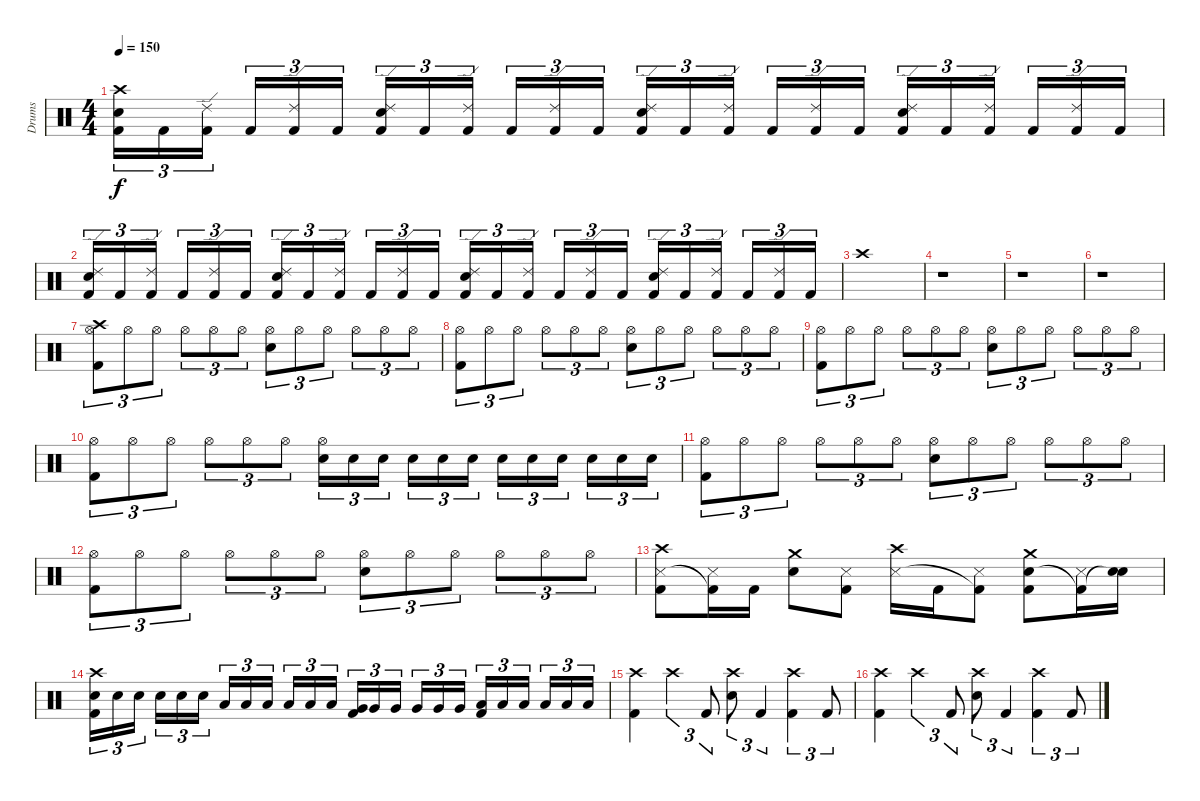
\track ("Drums" "Drums") {instrument percussion}
\staff {score}
\articulation defaults
\ts (4 4)
\tempo 150
\clef neutral
\ks c
("Crash high (hit)" "Electric Snare (hit)" "Kick (hit) 2").16{tu (3 2) dy f} "Kick (hit) 2".16{tu (3 2)} ("Ride (edge) 2" "Kick (hit) 2").16{tu (3 2)} "Kick (hit) 2".16{tu (3 2)} ("Ride (edge) 2" "Kick (hit) 2").16{tu (3 2)} "Kick (hit) 2".16{tu (3 2)} ("Ride (edge) 2" "Electric Snare (hit)" "Kick (hit) 2").16{tu (3 2)} "Kick (hit) 2".16{tu (3 2)} ("Ride (edge) 2" "Kick (hit) 2").16{tu (3 2)} "Kick (hit) 2".16{tu (3 2)} ("Ride (edge) 2" "Kick (hit) 2").16{tu (3 2)} "Kick (hit) 2".16{tu (3 2)} ("Ride (edge) 2" "Electric Snare (hit)" "Kick (hit) 2").16{tu (3 2)} "Kick (hit) 2".16{tu (3 2)} ("Ride (edge) 2" "Kick (hit) 2").16{tu (3 2)} "Kick (hit) 2".16{tu (3 2)} ("Ride (edge) 2" "Kick (hit) 2").16{tu (3 2)} "Kick (hit) 2".16{tu (3 2)} ("Ride (edge) 2" "Electric Snare (hit)" "Kick (hit) 2").16{tu (3 2)} "Kick (hit) 2".16{tu (3 2)} ("Ride (edge) 2" "Kick (hit) 2").16{tu (3 2)} "Kick (hit) 2".16{tu (3 2)} ("Ride (edge) 2" "Kick (hit) 2").16{tu (3 2)} "Kick (hit) 2".16{tu (3 2)} |
("Ride (edge) 2" "Electric Snare (hit)" "Kick (hit) 2").16{tu (3 2)} "Kick (hit) 2".16{tu (3 2)} ("Ride (edge) 2" "Kick (hit) 2").16{tu (3 2)} "Kick (hit) 2".16{tu (3 2)} ("Ride (edge) 2" "Kick (hit) 2").16{tu (3 2)} "Kick (hit) 2".16{tu (3 2)} ("Ride (edge) 2" "Electric Snare (hit)" "Kick (hit) 2").16{tu (3 2)} "Kick (hit) 2".16{tu (3 2)} ("Ride (edge) 2" "Kick (hit) 2").16{tu (3 2)} "Kick (hit) 2".16{tu (3 2)} ("Ride (edge) 2" "Kick (hit) 2").16{tu (3 2)} "Kick (hit) 2".16{tu (3 2)} ("Ride (edge) 2" "Electric Snare (hit)" "Kick (hit) 2").16{tu (3 2)} "Kick (hit) 2".16{tu (3 2)} ("Ride (edge) 2" "Kick (hit) 2").16{tu (3 2)} "Kick (hit) 2".16{tu (3 2)} ("Ride (edge) 2" "Kick (hit) 2").16{tu (3 2)} "Kick (hit) 2".16{tu (3 2)} ("Ride (edge) 2" "Electric Snare (hit)" "Kick (hit) 2").16{tu (3 2)} "Kick (hit) 2".16{tu (3 2)} ("Ride (edge) 2" "Kick (hit) 2").16{tu (3 2)} "Kick (hit) 2".16{tu (3 2)} ("Ride (edge) 2" "Kick (hit) 2").16{tu (3 2)} "Kick (hit) 2".16{tu (3 2)} |
"Crash high (hit)".1 |
r.1 |
r.1 |
r.1 |
("Crash high (hit)" "Hi-Hat (open)" "Kick (hit) 2").8{tu (3 2)} "Hi-Hat (open)".8{tu (3 2)} "Hi-Hat (open)".8{tu (3 2)} "Hi-Hat (open)".8{tu (3 2)} "Hi-Hat (open)".8{tu (3 2)} "Hi-Hat (open)".8{tu (3 2)} ("Hi-Hat (open)" "Electric Snare (hit)").8{tu (3 2)} "Hi-Hat (open)".8{tu (3 2)} "Hi-Hat (open)".8{tu (3 2)} "Hi-Hat (open)".8{tu (3 2)} "Hi-Hat (open)".8{tu (3 2)} "Hi-Hat (open)".8{tu (3 2)} |
("Hi-Hat (open)" "Kick (hit) 2").8{tu (3 2)} "Hi-Hat (open)".8{tu (3 2)} "Hi-Hat (open)".8{tu (3 2)} "Hi-Hat (open)".8{tu (3 2)} "Hi-Hat (open)".8{tu (3 2)} "Hi-Hat (open)".8{tu (3 2)} ("Hi-Hat (open)" "Electric Snare (hit)").8{tu (3 2)} "Hi-Hat (open)".8{tu (3 2)} "Hi-Hat (open)".8{tu (3 2)} "Hi-Hat (open)".8{tu (3 2)} "Hi-Hat (open)".8{tu (3 2)} "Hi-Hat (open)".8{tu (3 2)} |
("Hi-Hat (open)" "Kick (hit) 2").8{tu (3 2)} "Hi-Hat (open)".8{tu (3 2)} "Hi-Hat (open)".8{tu (3 2)} "Hi-Hat (open)".8{tu (3 2)} "Hi-Hat (open)".8{tu (3 2)} "Hi-Hat (open)".8{tu (3 2)} ("Hi-Hat (open)" "Electric Snare (hit)").8{tu (3 2)} "Hi-Hat (open)".8{tu (3 2)} "Hi-Hat (open)".8{tu (3 2)} "Hi-Hat (open)".8{tu (3 2)} "Hi-Hat (open)".8{tu (3 2)} "Hi-Hat (open)".8{tu (3 2)} |
("Hi-Hat (open)" "Kick (hit) 2").8{tu (3 2)} "Hi-Hat (open)".8{tu (3 2)} "Hi-Hat (open)".8{tu (3 2)} "Hi-Hat (open)".8{tu (3 2)} "Hi-Hat (open)".8{tu (3 2)} "Hi-Hat (open)".8{tu (3 2)} ("Hi-Hat (open)" "Electric Snare (hit)").16{tu (3 2)} "Electric Snare (hit)".16{tu (3 2)} "Electric Snare (hit)".16{tu (3 2)} "Electric Snare (hit)".16{tu (3 2)} "Electric Snare (hit)".16{tu (3 2)} "Electric Snare (hit)".16{tu (3 2)} "Electric Snare (hit)".16{tu (3 2)} "Electric Snare (hit)".16{tu (3 2)} "Electric Snare (hit)".16{tu (3 2)} "Electric Snare (hit)".16{tu (3 2)} "Electric Snare (hit)".16{tu (3 2)} "Electric Snare (hit)".16{tu (3 2)} |
("Hi-Hat (open)" "Kick (hit) 2").8{tu (3 2)} "Hi-Hat (open)".8{tu (3 2)} "Hi-Hat (open)".8{tu (3 2)} "Hi-Hat (open)".8{tu (3 2)} "Hi-Hat (open)".8{tu (3 2)} "Hi-Hat (open)".8{tu (3 2)} ("Hi-Hat (open)" "Electric Snare (hit)").8{tu (3 2)} "Hi-Hat (open)".8{tu (3 2)} "Hi-Hat (open)".8{tu (3 2)} "Hi-Hat (open)".8{tu (3 2)} "Hi-Hat (open)".8{tu (3 2)} "Hi-Hat (open)".8{tu (3 2)} |
("Hi-Hat (open)" "Kick (hit) 2").8{tu (3 2)} "Hi-Hat (open)".8{tu (3 2)} "Hi-Hat (open)".8{tu (3 2)} "Hi-Hat (open)".8{tu (3 2)} "Hi-Hat (open)".8{tu (3 2)} "Hi-Hat (open)".8{tu (3 2)} ("Hi-Hat (open)" "Electric Snare (hit)").8{tu (3 2)} "Hi-Hat (open)".8{tu (3 2)} "Hi-Hat (open)".8{tu (3 2)} "Hi-Hat (open)".8{tu (3 2)} "Hi-Hat (open)".8{tu (3 2)} "Hi-Hat (open)".8{tu (3 2)} |
("Crash high (hit)" "Snare (side stick) 3" "Kick (hit) 2").8 ("Snare (side stick) 3" "Kick (hit) 2"{t}).16 "Kick (hit) 2".16 ("Crash medium (hit)" "Electric Snare (hit)").8 ("Snare (side stick) 3" "Kick (hit) 2").8 ("Crash high (hit)" "Snare (side stick) 3").16 "Kick (hit) 2".16 ("Snare (side stick) 3" "Kick (hit) 2"{t}).8 ("Crash medium (hit)" "Electric Snare (hit)" "Kick (hit) 2").8 ("Snare (side stick) 3" "Kick (hit) 2"{t}).16 ("Electric Snare (hit)" "Snare (hit)"{t}).16 |
("Crash high (hit)" "Electric Snare (hit)" "Kick (hit) 2").16{tu (3 2)} "Electric Snare (hit)".16{tu (3 2)} "Electric Snare (hit)".16{tu (3 2)} "Electric Snare (hit)".16{tu (3 2)} "Electric Snare (hit)".16{tu (3 2)} "Electric Snare (hit)".16{tu (3 2)} "Low Tom (hit)".16{tu (3 2)} "Low Tom (hit)".16{tu (3 2)} "Low Tom (hit)".16{tu (3 2)} "Low Tom (hit)".16{tu (3 2)} "Low Tom (hit)".16{tu (3 2)} "Low Tom (hit)".16{tu (3 2)} ("Very Low Tom (hit)" "Kick (hit) 2").16{tu (3 2)} "Very Low Tom (hit)".16{tu (3 2)} "Very Low Tom (hit)".16{tu (3 2)} "Very Low Tom (hit)".16{tu (3 2)} "Very Low Tom (hit)".16{tu (3 2)} "Very Low Tom (hit)".16{tu (3 2)} ("Low Floor Tom (hit)" "Kick (hit) 2").16{tu (3 2)} "Low Floor Tom (hit)".16{tu (3 2)} "Low Floor Tom (hit)".16{tu (3 2)} "Low Floor Tom (hit)".16{tu (3 2)} "Low Floor Tom (hit)".16{tu (3 2)} "Low Floor Tom (hit)".16{tu (3 2)} |
("Crash high (hit)" "Kick (hit) 2").4 "Crash high (hit)".4{tu (3 2)} "Kick (hit) 2".8{tu (3 2)} ("Crash high (hit)" "Electric Snare (hit)").8{tu (3 2)} "Kick (hit) 2".4{tu (3 2)} ("Crash high (hit)" "Kick (hit) 2").4{tu (3 2)} "Kick (hit) 2".8{tu (3 2)} |
("Crash high (hit)" "Kick (hit) 2").4 "Crash high (hit)".4{tu (3 2)} "Kick (hit) 2".8{tu (3 2)} ("Crash high (hit)" "Electric Snare (hit)").8{tu (3 2)} "Kick (hit) 2".4{tu (3 2)} ("Crash high (hit)" "Kick (hit) 2").4{tu (3 2)} "Kick (hit) 2".8{tu (3 2)}
